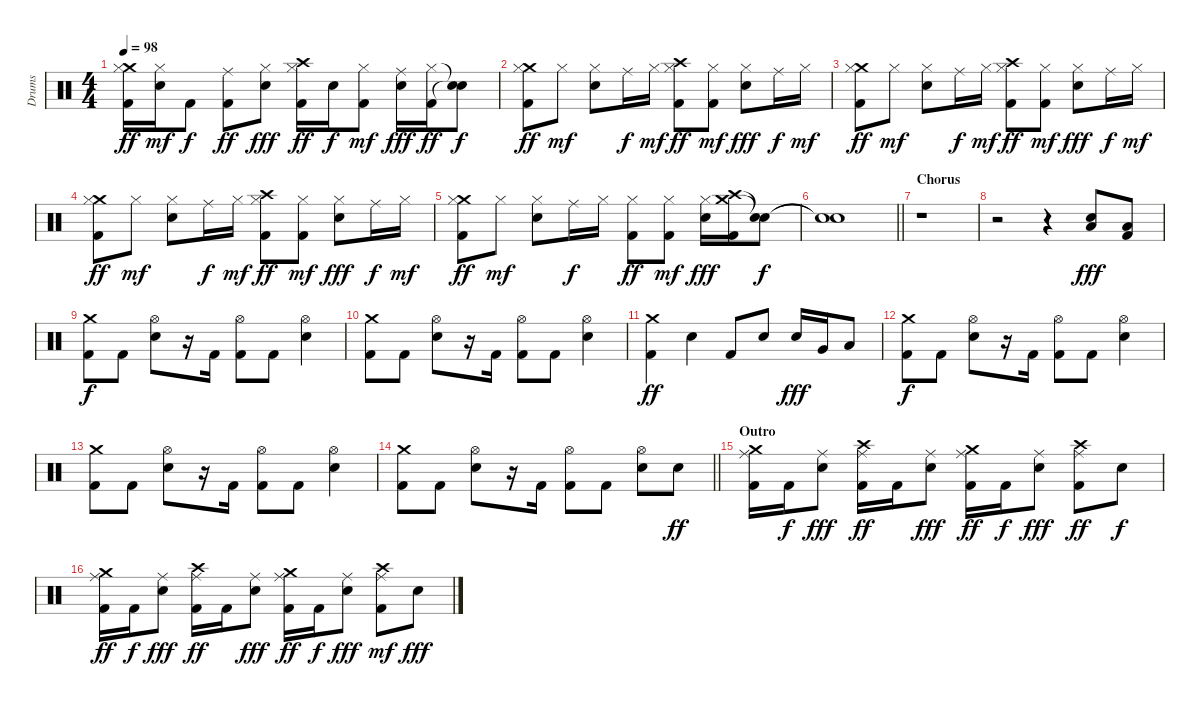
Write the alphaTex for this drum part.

\track ("Drums" "Drums") {instrument percussion}
\staff {score}
\articulation defaults
\ts (4 4)
\tempo 98
\clef neutral
\ks c
("Crash medium (hit)" "Hi-Hat (closed)" "Kick (hit) 2").16{dy ff} ("Hi-Hat (closed)" "Electric Snare (hit)").16{dy mf} "Kick (hit) 2".8{dy f} ("Ride (middle)" "Kick (hit) 2").8{dy ff} ("Hi-Hat (closed)" "Electric Snare (hit)").8{dy fff} ("Crash high (hit)" "Hi-Hat (closed)" "Kick (hit) 2").16{dy ff} "Electric Snare (hit)".16{dy f} ("Hi-Hat (closed)" "Kick (hit) 2").8{dy mf} ("Ride (middle)" "Electric Snare (hit)").16{dy fff} ("Hi-Hat (closed)" "Kick (hit) 2").16{dy ff} ("Snare (hit)"{t} "Snare (hit)"{t}).8{dy f} |
("Crash medium (hit)" "Hi-Hat (closed)" "Kick (hit) 2").8{dy ff} "Hi-Hat (closed)".8{dy mf} ("Hi-Hat (closed)" "Electric Snare (hit)").8 "Ride (middle)".16{dy f} "Hi-Hat (closed)".16{dy mf} ("Crash high (hit)" "Hi-Hat (closed)" "Kick (hit) 2").8{dy ff} ("Hi-Hat (closed)" "Kick (hit) 2").8{dy mf} ("Hi-Hat (closed)" "Electric Snare (hit)").8{dy fff} "Ride (middle)".16{dy f} "Hi-Hat (closed)".16{dy mf} |
("Crash medium (hit)" "Hi-Hat (closed)" "Kick (hit) 2").8{dy ff} "Hi-Hat (closed)".8{dy mf} ("Hi-Hat (closed)" "Electric Snare (hit)").8 "Ride (middle)".16{dy f} "Hi-Hat (closed)".16{dy mf} ("Crash high (hit)" "Hi-Hat (closed)" "Kick (hit) 2").8{dy ff} ("Hi-Hat (closed)" "Kick (hit) 2").8{dy mf} ("Hi-Hat (closed)" "Electric Snare (hit)").8{dy fff} "Ride (middle)".16{dy f} "Hi-Hat (closed)".16{dy mf} |
("Crash medium (hit)" "Hi-Hat (closed)" "Kick (hit) 2").8{dy ff} "Hi-Hat (closed)".8{dy mf} ("Hi-Hat (closed)" "Electric Snare (hit)").8 "Ride (middle)".16{dy f} "Hi-Hat (closed)".16{dy mf} ("Crash high (hit)" "Hi-Hat (closed)" "Kick (hit) 2").8{dy ff} ("Hi-Hat (closed)" "Kick (hit) 2").8{dy mf} ("Hi-Hat (closed)" "Electric Snare (hit)").8{dy fff} "Ride (middle)".16{dy f} "Hi-Hat (closed)".16{dy mf} |
("Crash medium (hit)" "Hi-Hat (closed)" "Kick (hit) 2").8{dy ff} "Hi-Hat (closed)".8{dy mf} ("Hi-Hat (closed)" "Electric Snare (hit)").8 "Ride (middle)".16{dy f} "Hi-Hat (closed)".16 ("Hi-Hat (closed)" "Kick (hit) 2").8{dy ff} ("Hi-Hat (closed)" "Kick (hit) 2").8{dy mf} ("Hi-Hat (closed)" "Electric Snare (hit)").16{dy fff} ("Crash medium (hit)" "Crash high (hit)" "Kick (hit) 2").16 ("Snare (hit)"{t} "Snare (hit)"{t}).8{dy f} |
\barLineRight lightlight
("Snare (hit)"{t} "Snare (hit)"{t}).1 |
\section ("" "Chorus")
r.1 |
r.2 r.4 ("Electric Snare (hit)" "Low Floor Tom (hit)").8{dy fff} ("Low Floor Tom (hit)" "Kick (hit) 2").8 |
("Crash medium (hit)" "Kick (hit) 2").8{dy f} "Kick (hit) 2".8 ("Hi-Hat (open)" "Electric Snare (hit)").8 r.16 "Kick (hit) 2".16 ("Hi-Hat (open)" "Kick (hit) 2").8 "Kick (hit) 2".8 ("Hi-Hat (open)" "Electric Snare (hit)").4 |
("Crash medium (hit)" "Kick (hit) 2").8 "Kick (hit) 2".8 ("Hi-Hat (open)" "Electric Snare (hit)").8 r.16 "Kick (hit) 2".16 ("Hi-Hat (open)" "Kick (hit) 2").8 "Kick (hit) 2".8 ("Hi-Hat (open)" "Electric Snare (hit)").4 |
("Crash medium (hit)" "Kick (hit) 2").4{dy ff} "Electric Snare (hit)".4 "Kick (hit) 2".8 "Electric Snare (hit)".8 "Electric Snare (hit)".16{dy fff} "Very Low Tom (hit)".16 "Low Floor Tom (hit)".8 |
("Crash medium (hit)" "Kick (hit) 2").8{dy f} "Kick (hit) 2".8 ("Hi-Hat (open)" "Electric Snare (hit)").8 r.16 "Kick (hit) 2".16 ("Hi-Hat (open)" "Kick (hit) 2").8 "Kick (hit) 2".8 ("Hi-Hat (open)" "Electric Snare (hit)").4 |
("Crash medium (hit)" "Kick (hit) 2").8 "Kick (hit) 2".8 ("Hi-Hat (open)" "Electric Snare (hit)").8 r.16 "Kick (hit) 2".16 ("Hi-Hat (open)" "Kick (hit) 2").8 "Kick (hit) 2".8 ("Hi-Hat (open)" "Electric Snare (hit)").4 |
\barLineRight lightlight
("Crash medium (hit)" "Kick (hit) 2").8 "Kick (hit) 2".8 ("Hi-Hat (open)" "Electric Snare (hit)").8 r.16 "Kick (hit) 2".16 ("Hi-Hat (open)" "Kick (hit) 2").8 "Kick (hit) 2".8 ("Hi-Hat (open)" "Electric Snare (hit)").8 "Electric Snare (hit)".8{dy ff} |
\section ("" "Outro")
("Crash medium (hit)" "Ride (middle)" "Kick (hit) 2").16 "Kick (hit) 2".16{dy f} ("Ride (middle)" "Electric Snare (hit)").8{dy fff} ("Crash high (hit)" "Ride (middle)" "Kick (hit) 2").16{dy ff} "Kick (hit) 2".16 ("Ride (middle)" "Electric Snare (hit)").8{dy fff} ("Crash medium (hit)" "Ride (middle)" "Kick (hit) 2").16{dy ff} "Kick (hit) 2".16{dy f} ("Ride (middle)" "Electric Snare (hit)").8{dy fff} ("Crash high (hit)" "Ride (middle)" "Kick (hit) 2").8{dy ff} "Electric Snare (hit)".8{dy f} |
("Crash medium (hit)" "Ride (middle)" "Kick (hit) 2").16{dy ff} "Kick (hit) 2".16{dy f} ("Ride (middle)" "Electric Snare (hit)").8{dy fff} ("Crash high (hit)" "Ride (middle)" "Kick (hit) 2").16{dy ff} "Kick (hit) 2".16 ("Ride (middle)" "Electric Snare (hit)").8{dy fff} ("Crash medium (hit)" "Ride (middle)" "Kick (hit) 2").16{dy ff} "Kick (hit) 2".16{dy f} ("Ride (middle)" "Electric Snare (hit)").8{dy fff} ("Crash high (hit)" "Ride (middle)" "Kick (hit) 2").8{dy mf} "Electric Snare (hit)".8{dy fff}
